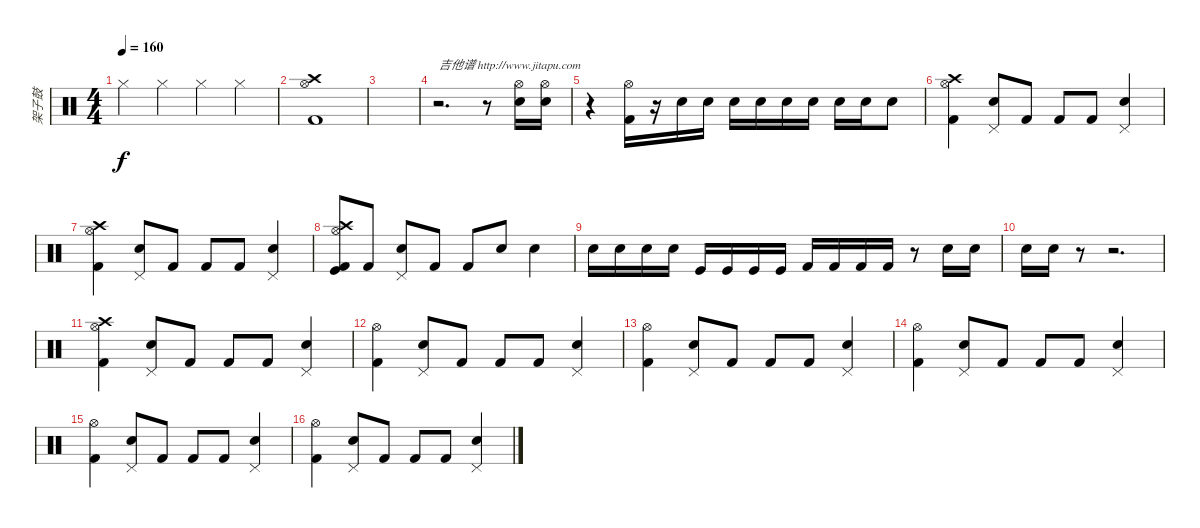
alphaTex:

\track ("架子鼓" "架子鼓") {instrument percussion}
\staff {score}
\articulation defaults
\ts (4 4)
\tempo 160
\clef neutral
\ks c "Hi-Hat (closed)".4{dy f} "Hi-Hat (closed)".4 "Hi-Hat (closed)".4 "Hi-Hat (closed)".4
|
("Kick (hit) 2" "Hi-Hat (open)" "Crash high (hit)").1 |
|
r.2{d txt "吉他谱 http://www.jitapu.com"} r.8 ("Electric Snare (hit)" "Hi-Hat (open)").16 ("Electric Snare (hit)" "Hi-Hat (open)").16 |
r.4 ("Kick (hit) 2" "Hi-Hat (open)").16 r.16 "Snare (hit) 2".16 "Snare (hit) 2".16 "Snare (hit) 2".16 "Snare (hit) 2".16 "Snare (hit) 2".16 "Snare (hit) 2".16 "Snare (hit) 2".16 "Snare (hit) 2".16 "Metronome (bell)".8 |
("Kick (hit) 2" "Hi-Hat (open)" "Crash high (hit)").4 ("Electric Snare (hit)" "Pedal Hi-Hat (hit)").8 "Kick (hit) 2".8 "Kick (hit) 2".8 "Kick (hit) 2".8 ("Electric Snare (hit)" "Pedal Hi-Hat (hit)").4 |
("Kick (hit) 2" "Hi-Hat (open)" "Crash high (hit)").4 ("Electric Snare (hit)" "Pedal Hi-Hat (hit)").8 "Kick (hit) 2".8 "Kick (hit) 2".8 "Kick (hit) 2".8 ("Electric Snare (hit)" "Pedal Hi-Hat (hit)").4 |
("Kick (hit) 2" "Hi-Hat (open)" "Kick (hit)" "Crash high (hit)").8 "Kick (hit) 2".8 ("Electric Snare (hit)" "Pedal Hi-Hat (hit)").8 "Kick (hit) 2".8 "Kick (hit) 2".8 "Electric Snare (hit)".8 "Electric Snare (hit)".4 |
"Electric Snare (hit)".16 "Electric Snare (hit)".16 "Electric Snare (hit)".16 "Electric Snare (hit)".16 "Kick (hit)".16 "Kick (hit)".16 "Kick (hit)".16 "Kick (hit)".16 "Kick (hit) 2".16 "Kick (hit) 2".16 "Kick (hit) 2".16 "Kick (hit) 2".16 r.8 "Electric Snare (hit)".16 "Electric Snare (hit)".16 |
"Electric Snare (hit)".16 "Electric Snare (hit)".16 r.8 r.2{d} |
("Kick (hit) 2" "Hi-Hat (open)" "Crash high (hit)").4 ("Electric Snare (hit)" "Pedal Hi-Hat (hit)").8 "Kick (hit) 2".8 "Kick (hit) 2".8 "Kick (hit) 2".8 ("Electric Snare (hit)" "Pedal Hi-Hat (hit)").4 |
("Kick (hit) 2" "Hi-Hat (open)").4 ("Electric Snare (hit)" "Pedal Hi-Hat (hit)").8 "Kick (hit) 2".8 "Kick (hit) 2".8 "Kick (hit) 2".8 ("Electric Snare (hit)" "Pedal Hi-Hat (hit)").4 |
("Kick (hit) 2" "Hi-Hat (open)").4 ("Electric Snare (hit)" "Pedal Hi-Hat (hit)").8 "Kick (hit) 2".8 "Kick (hit) 2".8 "Kick (hit) 2".8 ("Electric Snare (hit)" "Pedal Hi-Hat (hit)").4 |
("Kick (hit) 2" "Hi-Hat (open)").4 ("Electric Snare (hit)" "Pedal Hi-Hat (hit)").8 "Kick (hit) 2".8 "Kick (hit) 2".8 "Kick (hit) 2".8 ("Electric Snare (hit)" "Pedal Hi-Hat (hit)").4 |
("Kick (hit) 2" "Hi-Hat (open)").4 ("Electric Snare (hit)" "Pedal Hi-Hat (hit)").8 "Kick (hit) 2".8 "Kick (hit) 2".8 "Kick (hit) 2".8 ("Electric Snare (hit)" "Pedal Hi-Hat (hit)").4 |
("Kick (hit) 2" "Hi-Hat (open)").4 ("Electric Snare (hit)" "Pedal Hi-Hat (hit)").8 "Kick (hit) 2".8 "Kick (hit) 2".8 "Kick (hit) 2".8 ("Electric Snare (hit)" "Pedal Hi-Hat (hit)").4
